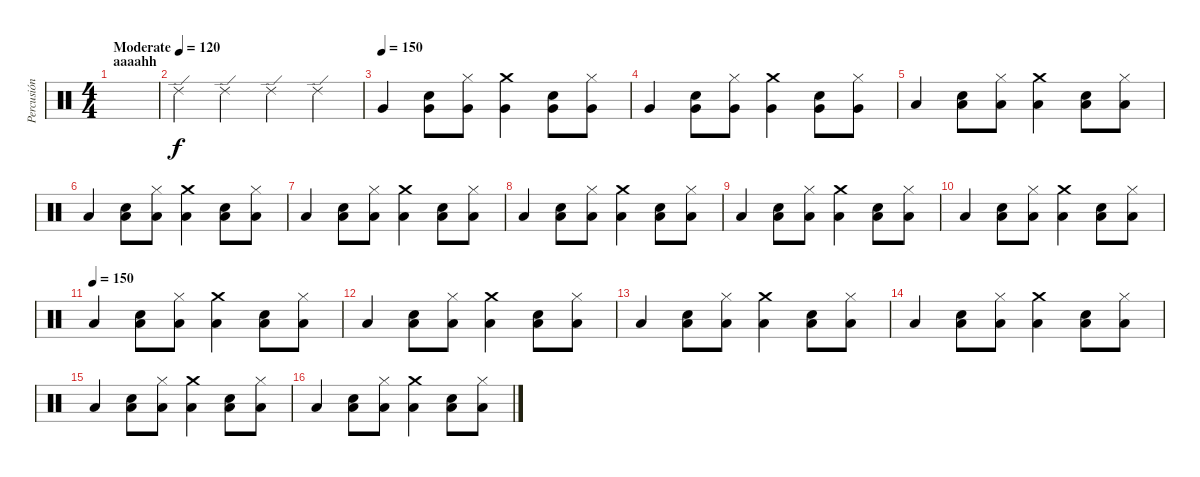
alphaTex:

\track ("Percusión" "Percusión") {instrument percussion}
\staff {score}
\articulation defaults
\ts (4 4)
\section ("" "aaaahh")
\tempo (120 "Moderate")
\clef neutral
\ks c
|
"Ride (edge) 2".4 "Ride (edge) 2".4 "Ride (edge) 2".4 "Ride (edge) 2".4 |
\tempo (150)
"Very Low Tom (hit)".4 ("Very Low Tom (hit)" "Snare (hit) 2").8 ("Very Low Tom (hit)" "Hi-Hat (closed)").8 ("Very Low Tom (hit)" "Crash medium (hit)").4 ("Very Low Tom (hit)" "Snare (hit) 2").8 ("Very Low Tom (hit)" "Hi-Hat (closed)").8 |
"Very Low Tom (hit)".4 ("Very Low Tom (hit)" "Snare (hit) 2").8 ("Very Low Tom (hit)" "Hi-Hat (closed)").8 ("Very Low Tom (hit)" "Crash medium (hit)").4 ("Very Low Tom (hit)" "Snare (hit) 2").8 ("Very Low Tom (hit)" "Hi-Hat (closed)").8 |
"Low Floor Tom (hit)".4 ("Low Floor Tom (hit)" "Snare (hit) 2").8 ("Low Floor Tom (hit)" "Hi-Hat (closed)").8 ("Low Floor Tom (hit)" "Crash medium (hit)").4 ("Low Floor Tom (hit)" "Snare (hit) 2").8 ("Low Floor Tom (hit)" "Hi-Hat (closed)").8 |
"Low Floor Tom (hit)".4 ("Low Floor Tom (hit)" "Snare (hit) 2").8 ("Low Floor Tom (hit)" "Hi-Hat (closed)").8 ("Low Floor Tom (hit)" "Crash medium (hit)").4 ("Low Floor Tom (hit)" "Snare (hit) 2").8 ("Low Floor Tom (hit)" "Hi-Hat (closed)").8 |
"Low Floor Tom (hit)".4 ("Low Floor Tom (hit)" "Snare (hit) 2").8 ("Low Floor Tom (hit)" "Hi-Hat (closed)").8 ("Low Floor Tom (hit)" "Crash medium (hit)").4 ("Low Floor Tom (hit)" "Snare (hit) 2").8 ("Low Floor Tom (hit)" "Hi-Hat (closed)").8 |
"Low Floor Tom (hit)".4 ("Low Floor Tom (hit)" "Snare (hit) 2").8 ("Low Floor Tom (hit)" "Hi-Hat (closed)").8 ("Low Floor Tom (hit)" "Crash medium (hit)").4 ("Low Floor Tom (hit)" "Snare (hit) 2").8 ("Low Floor Tom (hit)" "Hi-Hat (closed)").8 |
"Low Floor Tom (hit)".4 ("Low Floor Tom (hit)" "Snare (hit) 2").8 ("Low Floor Tom (hit)" "Hi-Hat (closed)").8 ("Low Floor Tom (hit)" "Crash medium (hit)").4 ("Low Floor Tom (hit)" "Snare (hit) 2").8 ("Low Floor Tom (hit)" "Hi-Hat (closed)").8 |
"Low Floor Tom (hit)".4 ("Low Floor Tom (hit)" "Snare (hit) 2").8 ("Low Floor Tom (hit)" "Hi-Hat (closed)").8 ("Low Floor Tom (hit)" "Crash medium (hit)").4 ("Low Floor Tom (hit)" "Snare (hit) 2").8 ("Low Floor Tom (hit)" "Hi-Hat (closed)").8 |
\tempo (150)
"Low Floor Tom (hit)".4 ("Low Floor Tom (hit)" "Snare (hit) 2").8 ("Low Floor Tom (hit)" "Hi-Hat (closed)").8 ("Low Floor Tom (hit)" "Crash medium (hit)").4 ("Low Floor Tom (hit)" "Snare (hit) 2").8 ("Low Floor Tom (hit)" "Hi-Hat (closed)").8 |
"Low Floor Tom (hit)".4 ("Low Floor Tom (hit)" "Snare (hit) 2").8 ("Low Floor Tom (hit)" "Hi-Hat (closed)").8 ("Low Floor Tom (hit)" "Crash medium (hit)").4 ("Low Floor Tom (hit)" "Snare (hit) 2").8 ("Low Floor Tom (hit)" "Hi-Hat (closed)").8 |
"Low Floor Tom (hit)".4 ("Low Floor Tom (hit)" "Snare (hit) 2").8 ("Low Floor Tom (hit)" "Hi-Hat (closed)").8 ("Low Floor Tom (hit)" "Crash medium (hit)").4 ("Low Floor Tom (hit)" "Snare (hit) 2").8 ("Low Floor Tom (hit)" "Hi-Hat (closed)").8 |
"Low Floor Tom (hit)".4 ("Low Floor Tom (hit)" "Snare (hit) 2").8 ("Low Floor Tom (hit)" "Hi-Hat (closed)").8 ("Low Floor Tom (hit)" "Crash medium (hit)").4 ("Low Floor Tom (hit)" "Snare (hit) 2").8 ("Low Floor Tom (hit)" "Hi-Hat (closed)").8 |
"Low Floor Tom (hit)".4 ("Low Floor Tom (hit)" "Snare (hit) 2").8 ("Low Floor Tom (hit)" "Hi-Hat (closed)").8 ("Low Floor Tom (hit)" "Crash medium (hit)").4 ("Low Floor Tom (hit)" "Snare (hit) 2").8 ("Low Floor Tom (hit)" "Hi-Hat (closed)").8 |
"Low Floor Tom (hit)".4 ("Low Floor Tom (hit)" "Snare (hit) 2").8 ("Low Floor Tom (hit)" "Hi-Hat (closed)").8 ("Low Floor Tom (hit)" "Crash medium (hit)").4 ("Low Floor Tom (hit)" "Snare (hit) 2").8 ("Low Floor Tom (hit)" "Hi-Hat (closed)").8
